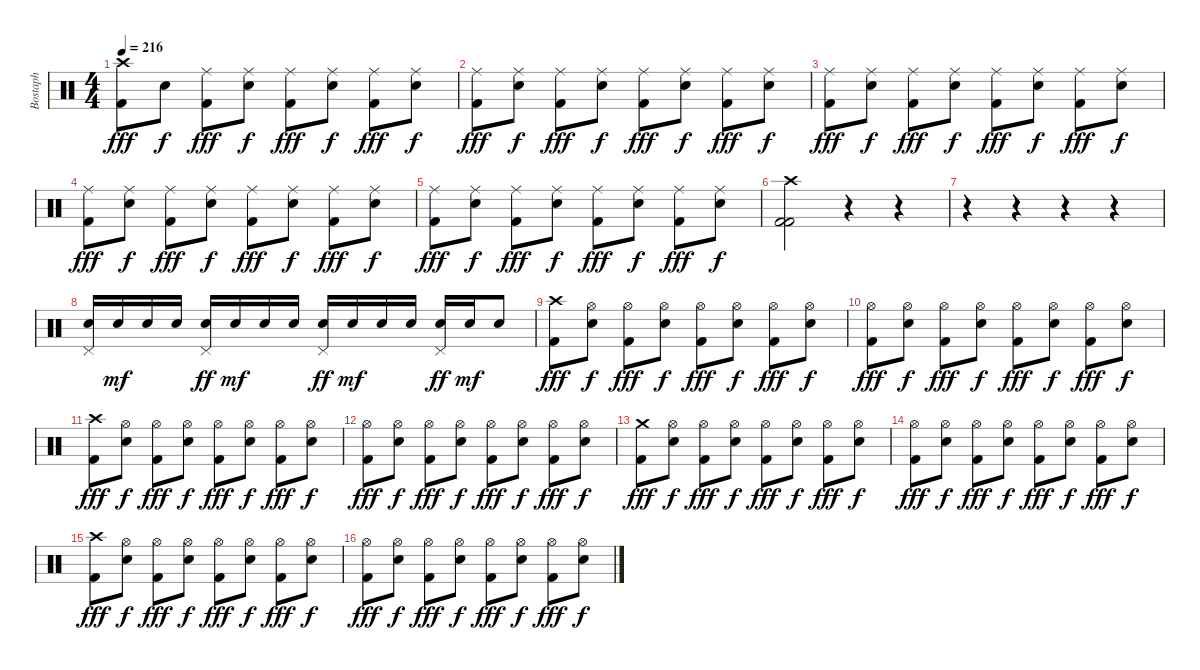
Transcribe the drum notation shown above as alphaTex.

\track ("Bostaph" "Bostaph") {instrument percussion}
\staff {score}
\articulation defaults
\ts (4 4)
\tempo 216
\clef neutral
\ks c
("Crash high (hit)" "Kick (hit) 2").8{dy fff} "Electric Snare (hit)".8{dy f} ("Ride (middle)" "Kick (hit) 2").8{dy fff} ("Ride (middle)" "Electric Snare (hit)").8{dy f} ("Ride (middle)" "Kick (hit) 2").8{dy fff} ("Ride (middle)" "Electric Snare (hit)").8{dy f} ("Ride (middle)" "Kick (hit) 2").8{dy fff} ("Ride (middle)" "Electric Snare (hit)").8{dy f} |
("Ride (middle)" "Kick (hit) 2").8{dy fff} ("Ride (middle)" "Electric Snare (hit)").8{dy f} ("Ride (middle)" "Kick (hit) 2").8{dy fff} ("Ride (middle)" "Electric Snare (hit)").8{dy f} ("Ride (middle)" "Kick (hit) 2").8{dy fff} ("Ride (middle)" "Electric Snare (hit)").8{dy f} ("Ride (middle)" "Kick (hit) 2").8{dy fff} ("Ride (middle)" "Electric Snare (hit)").8{dy f} |
("Ride (middle)" "Kick (hit) 2").8{dy fff} ("Ride (middle)" "Electric Snare (hit)").8{dy f} ("Ride (middle)" "Kick (hit) 2").8{dy fff} ("Ride (middle)" "Electric Snare (hit)").8{dy f} ("Ride (middle)" "Kick (hit) 2").8{dy fff} ("Ride (middle)" "Electric Snare (hit)").8{dy f} ("Ride (middle)" "Kick (hit) 2").8{dy fff} ("Ride (middle)" "Electric Snare (hit)").8{dy f} |
("Ride (middle)" "Kick (hit) 2").8{dy fff} ("Ride (middle)" "Electric Snare (hit)").8{dy f} ("Ride (middle)" "Kick (hit) 2").8{dy fff} ("Ride (middle)" "Electric Snare (hit)").8{dy f} ("Ride (middle)" "Kick (hit) 2").8{dy fff} ("Ride (middle)" "Electric Snare (hit)").8{dy f} ("Ride (middle)" "Kick (hit) 2").8{dy fff} ("Ride (middle)" "Electric Snare (hit)").8{dy f} |
("Ride (middle)" "Kick (hit) 2").8{dy fff} ("Ride (middle)" "Electric Snare (hit)").8{dy f} ("Ride (middle)" "Kick (hit) 2").8{dy fff} ("Ride (middle)" "Electric Snare (hit)").8{dy f} ("Ride (middle)" "Kick (hit) 2").8{dy fff} ("Ride (middle)" "Electric Snare (hit)").8{dy f} ("Ride (middle)" "Kick (hit) 2").8{dy fff} ("Ride (middle)" "Electric Snare (hit)").8{dy f} |
("Crash high (hit)" "Kick (hit) 2" "Kick (hit) 2").2 r.4 r.4 |
r.4 r.4 r.4 r.4 |
("Pedal Hi-Hat (hit)" "Electric Snare (hit)").16 "Electric Snare (hit)".16{dy mf} "Electric Snare (hit)".16 "Electric Snare (hit)".16 ("Pedal Hi-Hat (hit)" "Electric Snare (hit)").16{dy ff} "Electric Snare (hit)".16{dy mf} "Electric Snare (hit)".16 "Electric Snare (hit)".16 ("Pedal Hi-Hat (hit)" "Electric Snare (hit)").16{dy ff} "Electric Snare (hit)".16{dy mf} "Electric Snare (hit)".16 "Electric Snare (hit)".16 ("Pedal Hi-Hat (hit)" "Electric Snare (hit)").16{dy ff} "Electric Snare (hit)".16{dy mf} "Electric Snare (hit)".8 |
("Crash high (hit)" "Kick (hit) 2").8{dy fff} ("Hi-Hat (open)" "Electric Snare (hit)").8{dy f} ("Hi-Hat (open)" "Kick (hit) 2").8{dy fff} ("Hi-Hat (open)" "Electric Snare (hit)").8{dy f} ("Hi-Hat (open)" "Kick (hit) 2").8{dy fff} ("Hi-Hat (open)" "Electric Snare (hit)").8{dy f} ("Hi-Hat (open)" "Kick (hit) 2").8{dy fff} ("Hi-Hat (open)" "Electric Snare (hit)").8{dy f} |
("Hi-Hat (open)" "Kick (hit) 2").8{dy fff} ("Hi-Hat (open)" "Electric Snare (hit)").8{dy f} ("Hi-Hat (open)" "Kick (hit) 2").8{dy fff} ("Hi-Hat (open)" "Electric Snare (hit)").8{dy f} ("Hi-Hat (open)" "Kick (hit) 2").8{dy fff} ("Hi-Hat (open)" "Electric Snare (hit)").8{dy f} ("Hi-Hat (open)" "Kick (hit) 2").8{dy fff} ("Hi-Hat (open)" "Electric Snare (hit)").8{dy f} |
("Crash high (hit)" "Kick (hit) 2").8{dy fff} ("Hi-Hat (open)" "Electric Snare (hit)").8{dy f} ("Hi-Hat (open)" "Kick (hit) 2").8{dy fff} ("Hi-Hat (open)" "Electric Snare (hit)").8{dy f} ("Hi-Hat (open)" "Kick (hit) 2").8{dy fff} ("Hi-Hat (open)" "Electric Snare (hit)").8{dy f} ("Hi-Hat (open)" "Kick (hit) 2").8{dy fff} ("Hi-Hat (open)" "Electric Snare (hit)").8{dy f} |
("Hi-Hat (open)" "Kick (hit) 2").8{dy fff} ("Hi-Hat (open)" "Electric Snare (hit)").8{dy f} ("Hi-Hat (open)" "Kick (hit) 2").8{dy fff} ("Hi-Hat (open)" "Electric Snare (hit)").8{dy f} ("Hi-Hat (open)" "Kick (hit) 2").8{dy fff} ("Hi-Hat (open)" "Electric Snare (hit)").8{dy f} ("Hi-Hat (open)" "Kick (hit) 2").8{dy fff} ("Hi-Hat (open)" "Electric Snare (hit)").8{dy f} |
("Crash medium (hit)" "Kick (hit) 2").8{dy fff} ("Hi-Hat (open)" "Electric Snare (hit)").8{dy f} ("Hi-Hat (open)" "Kick (hit) 2").8{dy fff} ("Hi-Hat (open)" "Electric Snare (hit)").8{dy f} ("Hi-Hat (open)" "Kick (hit) 2").8{dy fff} ("Hi-Hat (open)" "Electric Snare (hit)").8{dy f} ("Hi-Hat (open)" "Kick (hit) 2").8{dy fff} ("Hi-Hat (open)" "Electric Snare (hit)").8{dy f} |
("Hi-Hat (open)" "Kick (hit) 2").8{dy fff} ("Hi-Hat (open)" "Electric Snare (hit)").8{dy f} ("Hi-Hat (open)" "Kick (hit) 2").8{dy fff} ("Hi-Hat (open)" "Electric Snare (hit)").8{dy f} ("Hi-Hat (open)" "Kick (hit) 2").8{dy fff} ("Hi-Hat (open)" "Electric Snare (hit)").8{dy f} ("Hi-Hat (open)" "Kick (hit) 2").8{dy fff} ("Hi-Hat (open)" "Electric Snare (hit)").8{dy f} |
("Crash high (hit)" "Kick (hit) 2").8{dy fff} ("Hi-Hat (open)" "Electric Snare (hit)").8{dy f} ("Hi-Hat (open)" "Kick (hit) 2").8{dy fff} ("Hi-Hat (open)" "Electric Snare (hit)").8{dy f} ("Hi-Hat (open)" "Kick (hit) 2").8{dy fff} ("Hi-Hat (open)" "Electric Snare (hit)").8{dy f} ("Hi-Hat (open)" "Kick (hit) 2").8{dy fff} ("Hi-Hat (open)" "Electric Snare (hit)").8{dy f} |
("Hi-Hat (open)" "Kick (hit) 2").8{dy fff} ("Hi-Hat (open)" "Electric Snare (hit)").8{dy f} ("Hi-Hat (open)" "Kick (hit) 2").8{dy fff} ("Hi-Hat (open)" "Electric Snare (hit)").8{dy f} ("Hi-Hat (open)" "Kick (hit) 2").8{dy fff} ("Hi-Hat (open)" "Electric Snare (hit)").8{dy f} ("Hi-Hat (open)" "Kick (hit) 2").8{dy fff} ("Hi-Hat (open)" "Electric Snare (hit)").8{dy f}
